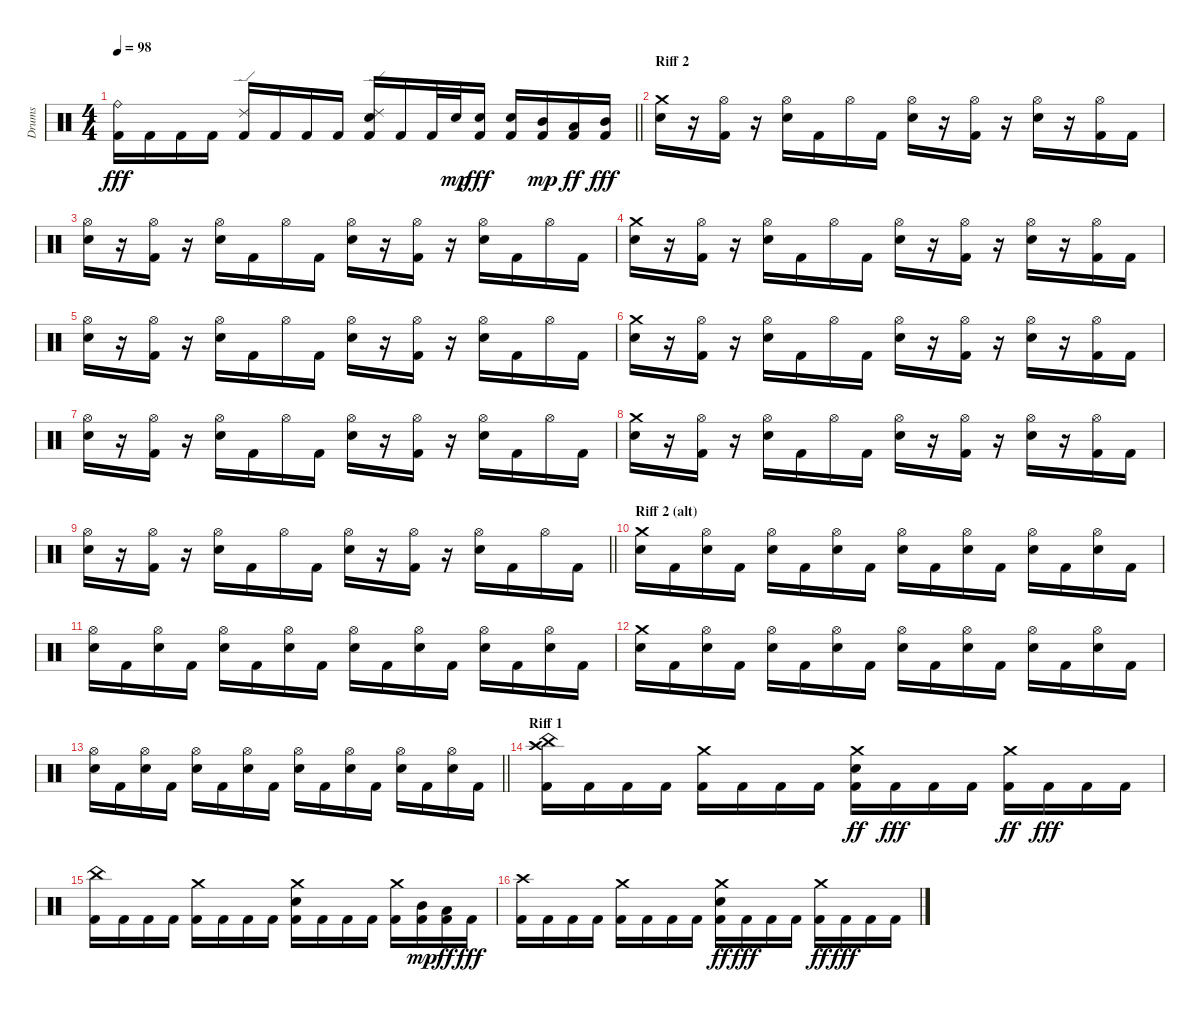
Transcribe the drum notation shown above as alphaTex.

\track ("Drums" "Drums") {instrument percussion}
\staff {score}
\articulation defaults
\ts (4 4)
\tempo 98
\clef neutral
\barLineRight lightlight
\ks c
("Kick (hit) 2" "Ride (bell)").16{dy fff} "Kick (hit) 2".16 "Kick (hit) 2".16 "Kick (hit) 2".16 ("Kick (hit) 2" "Ride (edge) 2").16 "Kick (hit) 2".16 "Kick (hit) 2".16 "Kick (hit) 2".16 ("Kick (hit) 2" "Snare (hit) 2" "Ride (edge) 2").16 "Kick (hit) 2".16 "Kick (hit) 2".32 "Snare (hit) 2".32{dy mp} ("Kick (hit) 2" "Snare (hit) 2").16{dy fff} ("Kick (hit) 2" "Snare (hit) 2").16 ("Kick (hit) 2" "Mid Tom (hit)").16{dy mp} ("Kick (hit) 2" "Low Tom (hit)").16{dy ff} ("Kick (hit) 2" "Mid Tom (hit)").16{dy fff} |
\section ("" "Riff 2")
("Snare (hit) 2" "Crash medium (hit)").16 r.16 ("Kick (hit) 2" "Hi-Hat (open)").16 r.16 ("Snare (hit) 2" "Hi-Hat (open)").16 "Kick (hit) 2".16 "Hi-Hat (open)".16 "Kick (hit) 2".16 ("Snare (hit) 2" "Hi-Hat (open)").16 r.16 ("Kick (hit) 2" "Hi-Hat (open)").16 r.16 ("Snare (hit) 2" "Hi-Hat (open)").16 r.16 ("Kick (hit) 2" "Hi-Hat (open)").16 "Kick (hit) 2".16 |
("Snare (hit) 2" "Hi-Hat (open)").16 r.16 ("Kick (hit) 2" "Hi-Hat (open)").16 r.16 ("Snare (hit) 2" "Hi-Hat (open)").16 "Kick (hit) 2".16 "Hi-Hat (open)".16 "Kick (hit) 2".16 ("Snare (hit) 2" "Hi-Hat (open)").16 r.16 ("Kick (hit) 2" "Hi-Hat (open)").16 r.16 ("Snare (hit) 2" "Hi-Hat (open)").16 "Kick (hit) 2".16 "Hi-Hat (open)".16 "Kick (hit) 2".16 |
("Snare (hit) 2" "Crash medium (hit)").16 r.16 ("Kick (hit) 2" "Hi-Hat (open)").16 r.16 ("Snare (hit) 2" "Hi-Hat (open)").16 "Kick (hit) 2".16 "Hi-Hat (open)".16 "Kick (hit) 2".16 ("Snare (hit) 2" "Hi-Hat (open)").16 r.16 ("Kick (hit) 2" "Hi-Hat (open)").16 r.16 ("Snare (hit) 2" "Hi-Hat (open)").16 r.16 ("Kick (hit) 2" "Hi-Hat (open)").16 "Kick (hit) 2".16 |
("Snare (hit) 2" "Hi-Hat (open)").16 r.16 ("Kick (hit) 2" "Hi-Hat (open)").16 r.16 ("Snare (hit) 2" "Hi-Hat (open)").16 "Kick (hit) 2".16 "Hi-Hat (open)".16 "Kick (hit) 2".16 ("Snare (hit) 2" "Hi-Hat (open)").16 r.16 ("Kick (hit) 2" "Hi-Hat (open)").16 r.16 ("Snare (hit) 2" "Hi-Hat (open)").16 "Kick (hit) 2".16 "Hi-Hat (open)".16 "Kick (hit) 2".16 |
("Snare (hit) 2" "Crash medium (hit)").16 r.16 ("Kick (hit) 2" "Hi-Hat (open)").16 r.16 ("Snare (hit) 2" "Hi-Hat (open)").16 "Kick (hit) 2".16 "Hi-Hat (open)".16 "Kick (hit) 2".16 ("Snare (hit) 2" "Hi-Hat (open)").16 r.16 ("Kick (hit) 2" "Hi-Hat (open)").16 r.16 ("Snare (hit) 2" "Hi-Hat (open)").16 r.16 ("Kick (hit) 2" "Hi-Hat (open)").16 "Kick (hit) 2".16 |
("Snare (hit) 2" "Hi-Hat (open)").16 r.16 ("Kick (hit) 2" "Hi-Hat (open)").16 r.16 ("Snare (hit) 2" "Hi-Hat (open)").16 "Kick (hit) 2".16 "Hi-Hat (open)".16 "Kick (hit) 2".16 ("Snare (hit) 2" "Hi-Hat (open)").16 r.16 ("Kick (hit) 2" "Hi-Hat (open)").16 r.16 ("Snare (hit) 2" "Hi-Hat (open)").16 "Kick (hit) 2".16 "Hi-Hat (open)".16 "Kick (hit) 2".16 |
("Snare (hit) 2" "Crash medium (hit)").16 r.16 ("Kick (hit) 2" "Hi-Hat (open)").16 r.16 ("Snare (hit) 2" "Hi-Hat (open)").16 "Kick (hit) 2".16 "Hi-Hat (open)".16 "Kick (hit) 2".16 ("Snare (hit) 2" "Hi-Hat (open)").16 r.16 ("Kick (hit) 2" "Hi-Hat (open)").16 r.16 ("Snare (hit) 2" "Hi-Hat (open)").16 r.16 ("Kick (hit) 2" "Hi-Hat (open)").16 "Kick (hit) 2".16 |
\barLineRight lightlight
("Snare (hit) 2" "Hi-Hat (open)").16 r.16 ("Kick (hit) 2" "Hi-Hat (open)").16 r.16 ("Snare (hit) 2" "Hi-Hat (open)").16 "Kick (hit) 2".16 "Hi-Hat (open)".16 "Kick (hit) 2".16 ("Snare (hit) 2" "Hi-Hat (open)").16 r.16 ("Kick (hit) 2" "Hi-Hat (open)").16 r.16 ("Snare (hit) 2" "Hi-Hat (open)").16 "Kick (hit) 2".16 "Hi-Hat (open)".16 "Kick (hit) 2".16 |
\section ("" "Riff 2 (alt)")
("Snare (hit) 2" "Crash medium (hit)").16 "Kick (hit) 2".16 ("Snare (hit) 2" "Hi-Hat (open)").16 "Kick (hit) 2".16 ("Snare (hit) 2" "Hi-Hat (open)").16 "Kick (hit) 2".16 ("Snare (hit) 2" "Hi-Hat (open)").16 "Kick (hit) 2".16 ("Snare (hit) 2" "Hi-Hat (open)").16 "Kick (hit) 2".16 ("Snare (hit) 2" "Hi-Hat (open)").16 "Kick (hit) 2".16 ("Snare (hit) 2" "Hi-Hat (open)").16 "Kick (hit) 2".16 ("Snare (hit) 2" "Hi-Hat (open)").16 "Kick (hit) 2".16 |
("Snare (hit) 2" "Hi-Hat (open)").16 "Kick (hit) 2".16 ("Snare (hit) 2" "Hi-Hat (open)").16 "Kick (hit) 2".16 ("Snare (hit) 2" "Hi-Hat (open)").16 "Kick (hit) 2".16 ("Snare (hit) 2" "Hi-Hat (open)").16 "Kick (hit) 2".16 ("Snare (hit) 2" "Hi-Hat (open)").16 "Kick (hit) 2".16 ("Snare (hit) 2" "Hi-Hat (open)").16 "Kick (hit) 2".16 ("Snare (hit) 2" "Hi-Hat (open)").16 "Kick (hit) 2".16 ("Snare (hit) 2" "Hi-Hat (open)").16 "Kick (hit) 2".16 |
("Snare (hit) 2" "Crash medium (hit)").16 "Kick (hit) 2".16 ("Snare (hit) 2" "Hi-Hat (open)").16 "Kick (hit) 2".16 ("Snare (hit) 2" "Hi-Hat (open)").16 "Kick (hit) 2".16 ("Snare (hit) 2" "Hi-Hat (open)").16 "Kick (hit) 2".16 ("Snare (hit) 2" "Hi-Hat (open)").16 "Kick (hit) 2".16 ("Snare (hit) 2" "Hi-Hat (open)").16 "Kick (hit) 2".16 ("Snare (hit) 2" "Hi-Hat (open)").16 "Kick (hit) 2".16 ("Snare (hit) 2" "Hi-Hat (open)").16 "Kick (hit) 2".16 |
\barLineRight lightlight
("Snare (hit) 2" "Hi-Hat (open)").16 "Kick (hit) 2".16 ("Snare (hit) 2" "Hi-Hat (open)").16 "Kick (hit) 2".16 ("Snare (hit) 2" "Hi-Hat (open)").16 "Kick (hit) 2".16 ("Snare (hit) 2" "Hi-Hat (open)").16 "Kick (hit) 2".16 ("Snare (hit) 2" "Hi-Hat (open)").16 "Kick (hit) 2".16 ("Snare (hit) 2" "Hi-Hat (open)").16 "Kick (hit) 2".16 ("Snare (hit) 2" "Hi-Hat (open)").16 "Kick (hit) 2".16 ("Snare (hit) 2" "Hi-Hat (open)").16 "Kick (hit) 2".16 |
\section ("" "Riff 1")
("Kick (hit) 2" "Crash high (hit)" "China (hit)").16 "Kick (hit) 2".16 "Kick (hit) 2".16 "Kick (hit) 2".16 ("Kick (hit) 2" "Crash medium (hit)").16 "Kick (hit) 2".16 "Kick (hit) 2".16 "Kick (hit) 2".16 ("Kick (hit) 2" "Snare (hit) 2" "Crash medium (hit)").16{dy ff} "Kick (hit) 2".16{dy fff} "Kick (hit) 2".16 "Kick (hit) 2".16 ("Kick (hit) 2" "Crash medium (hit)").16{dy ff} "Kick (hit) 2".16{dy fff} "Kick (hit) 2".16 "Kick (hit) 2".16 |
("Kick (hit) 2" "China (hit)").16 "Kick (hit) 2".16 "Kick (hit) 2".16 "Kick (hit) 2".16 ("Kick (hit) 2" "Crash medium (hit)").16 "Kick (hit) 2".16 "Kick (hit) 2".16 "Kick (hit) 2".16 ("Kick (hit) 2" "Snare (hit) 2" "Crash medium (hit)").16 "Kick (hit) 2".16 "Kick (hit) 2".16 "Kick (hit) 2".16 ("Kick (hit) 2" "Crash medium (hit)").16 ("Kick (hit) 2" "Mid Tom (hit)").16{dy mp} ("Kick (hit) 2" "Low Tom (hit)").16{dy ff} "Kick (hit) 2".16{dy fff} |
("Kick (hit) 2" "Crash high (hit)").16 "Kick (hit) 2".16 "Kick (hit) 2".16 "Kick (hit) 2".16 ("Kick (hit) 2" "Crash medium (hit)").16 "Kick (hit) 2".16 "Kick (hit) 2".16 "Kick (hit) 2".16 ("Kick (hit) 2" "Snare (hit) 2" "Crash medium (hit)").16{dy ff} "Kick (hit) 2".16{dy fff} "Kick (hit) 2".16 "Kick (hit) 2".16 ("Kick (hit) 2" "Crash medium (hit)").16{dy ff} "Kick (hit) 2".16{dy fff} "Kick (hit) 2".16 "Kick (hit) 2".16
